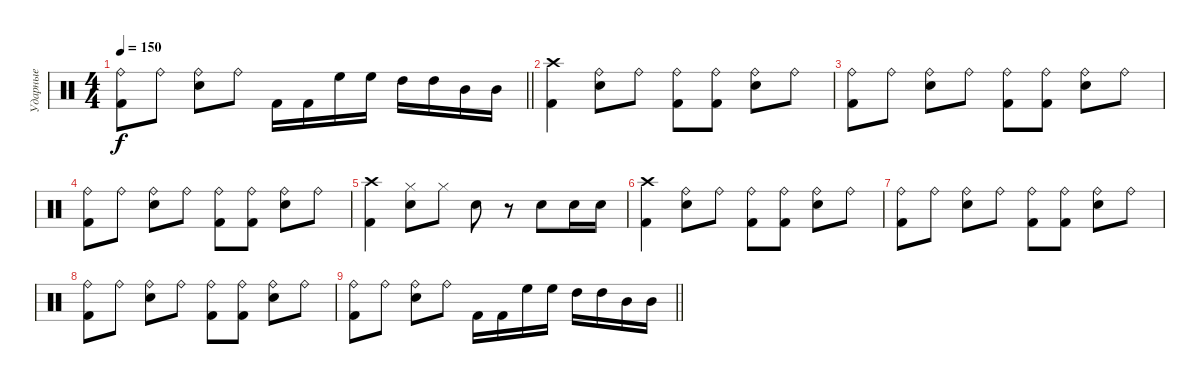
\track ("Ударные" "Ударные") {instrument percussion}
\staff {score}
\articulation defaults
\ts (4 4)
\tempo 150
\clef neutral
\barLineRight lightlight
\ks c
("Ride (bell)" "Kick (hit) 2").8{dy f} "Ride (bell)".8 ("Ride (bell)" "Electric Snare (hit)").8 "Ride (bell)".8 "Kick (hit) 2".16 "Kick (hit) 2".16 "High Floor Tom (hit)".16 "High Floor Tom (hit)".16 "High Tom (hit)".16 "High Tom (hit)".16 "Mid Tom (hit)".16 "Mid Tom (hit)".16 |
("Crash high (hit)" "Kick (hit) 2").4 ("Ride (bell)" "Electric Snare (hit)").8 "Ride (bell)".8 ("Ride (bell)" "Kick (hit) 2").8 ("Ride (bell)" "Kick (hit) 2").8 ("Ride (bell)" "Electric Snare (hit)").8 "Ride (bell)".8 |
("Ride (bell)" "Kick (hit) 2").8 "Ride (bell)".8 ("Ride (bell)" "Electric Snare (hit)").8 "Ride (bell)".8 ("Ride (bell)" "Kick (hit) 2").8 ("Ride (bell)" "Kick (hit) 2").8 ("Ride (bell)" "Electric Snare (hit)").8 "Ride (bell)".8 |
("Ride (bell)" "Kick (hit) 2").8 "Ride (bell)".8 ("Ride (bell)" "Electric Snare (hit)").8 "Ride (bell)".8 ("Ride (bell)" "Kick (hit) 2").8 ("Ride (bell)" "Kick (hit) 2").8 ("Ride (bell)" "Electric Snare (hit)").8 "Ride (bell)".8 |
("Crash high (hit)" "Kick (hit) 2").4 ("Hi-Hat (closed)" "Electric Snare (hit)").8 "Hi-Hat (closed)".8 "Electric Snare (hit)".8 r.8 "Electric Snare (hit)".8 "Electric Snare (hit)".16 "Electric Snare (hit)".16 |
("Crash high (hit)" "Kick (hit) 2").4 ("Ride (bell)" "Electric Snare (hit)").8 "Ride (bell)".8 ("Ride (bell)" "Kick (hit) 2").8 ("Ride (bell)" "Kick (hit) 2").8 ("Ride (bell)" "Electric Snare (hit)").8 "Ride (bell)".8 |
("Ride (bell)" "Kick (hit) 2").8 "Ride (bell)".8 ("Ride (bell)" "Electric Snare (hit)").8 "Ride (bell)".8 ("Ride (bell)" "Kick (hit) 2").8 ("Ride (bell)" "Kick (hit) 2").8 ("Ride (bell)" "Electric Snare (hit)").8 "Ride (bell)".8 |
("Ride (bell)" "Kick (hit) 2").8 "Ride (bell)".8 ("Ride (bell)" "Electric Snare (hit)").8 "Ride (bell)".8 ("Ride (bell)" "Kick (hit) 2").8 ("Ride (bell)" "Kick (hit) 2").8 ("Ride (bell)" "Electric Snare (hit)").8 "Ride (bell)".8 |
\barLineRight lightlight
("Ride (bell)" "Kick (hit) 2").8 "Ride (bell)".8 ("Ride (bell)" "Electric Snare (hit)").8 "Ride (bell)".8 "Kick (hit) 2".16 "Kick (hit) 2".16 "High Floor Tom (hit)".16 "High Floor Tom (hit)".16 "High Tom (hit)".16 "High Tom (hit)".16 "Mid Tom (hit)".16 "Mid Tom (hit)".16
